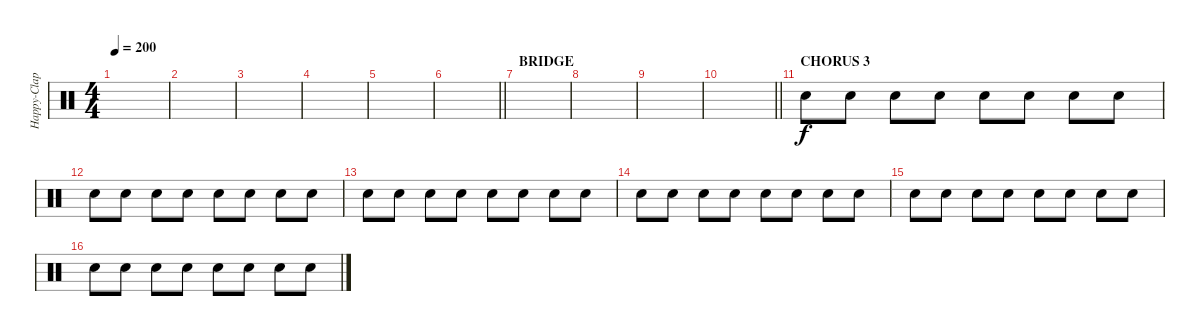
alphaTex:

\track ("Happy-Clappy" "Happy-Clap") {instrument percussion}
\staff {score}
\articulation defaults
\ts (4 4)
\tempo 200
\clef neutral
\ks c
|
|
|
|
|
\barLineRight lightlight
|
\section ("" "BRIDGE")
|
|
|
\barLineRight lightlight
|
\section ("" "CHORUS 3")
"Hand Clap (hit)".8 "Hand Clap (hit)".8 "Hand Clap (hit)".8 "Hand Clap (hit)".8 "Hand Clap (hit)".8 "Hand Clap (hit)".8 "Hand Clap (hit)".8 "Hand Clap (hit)".8 |
"Hand Clap (hit)".8 "Hand Clap (hit)".8 "Hand Clap (hit)".8 "Hand Clap (hit)".8 "Hand Clap (hit)".8 "Hand Clap (hit)".8 "Hand Clap (hit)".8 "Hand Clap (hit)".8 |
"Hand Clap (hit)".8 "Hand Clap (hit)".8 "Hand Clap (hit)".8 "Hand Clap (hit)".8 "Hand Clap (hit)".8 "Hand Clap (hit)".8 "Hand Clap (hit)".8 "Hand Clap (hit)".8 |
"Hand Clap (hit)".8 "Hand Clap (hit)".8 "Hand Clap (hit)".8 "Hand Clap (hit)".8 "Hand Clap (hit)".8 "Hand Clap (hit)".8 "Hand Clap (hit)".8 "Hand Clap (hit)".8 |
"Hand Clap (hit)".8 "Hand Clap (hit)".8 "Hand Clap (hit)".8 "Hand Clap (hit)".8 "Hand Clap (hit)".8 "Hand Clap (hit)".8 "Hand Clap (hit)".8 "Hand Clap (hit)".8 |
"Hand Clap (hit)".8 "Hand Clap (hit)".8 "Hand Clap (hit)".8 "Hand Clap (hit)".8 "Hand Clap (hit)".8 "Hand Clap (hit)".8 "Hand Clap (hit)".8 "Hand Clap (hit)".8
